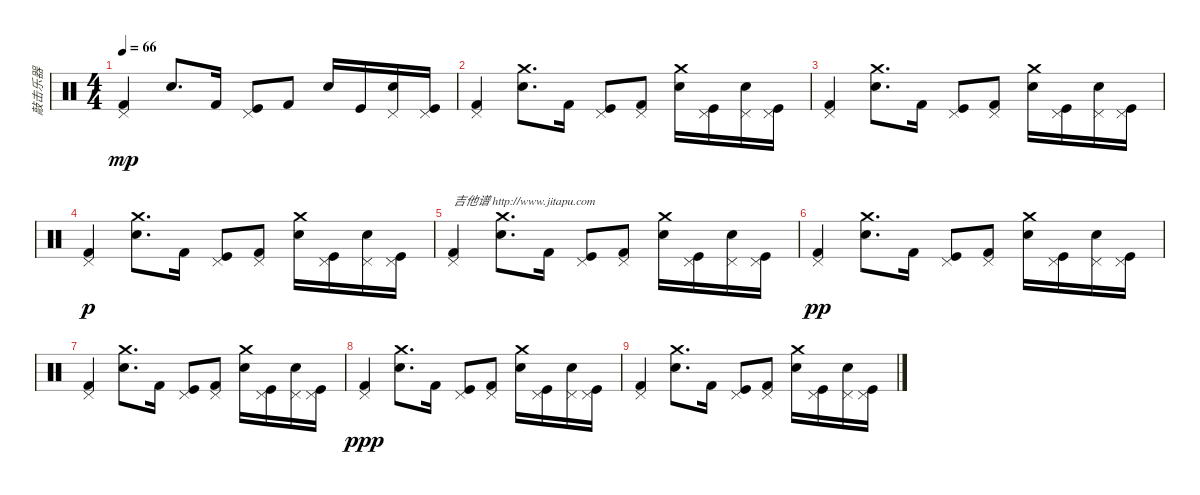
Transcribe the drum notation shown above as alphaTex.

\track ("敲击乐器" "敲击乐器") {instrument percussion}
\staff {score}
\articulation defaults
\ts (4 4)
\tempo 66
\clef neutral
\ks c
("Kick (hit) 2" "Pedal Hi-Hat (hit)").4{dy mp} "Snare (hit) 2".8{d} "Kick (hit) 2".16 ("Kick (hit)" "Pedal Hi-Hat (hit)").8 "Kick (hit) 2".8 "Snare (hit) 2".16 "Kick (hit)".16 ("Snare (hit) 2" "Pedal Hi-Hat (hit)").16 ("Kick (hit)" "Pedal Hi-Hat (hit)").16 |
("Kick (hit) 2" "Pedal Hi-Hat (hit)").4 ("Snare (hit) 2" "Crash medium (hit)").8{d} "Kick (hit) 2".16 ("Kick (hit)" "Pedal Hi-Hat (hit)").8 ("Kick (hit) 2" "Pedal Hi-Hat (hit)").8 ("Snare (hit) 2" "Crash medium (hit)").16 ("Kick (hit)" "Pedal Hi-Hat (hit)").16 ("Snare (hit) 2" "Pedal Hi-Hat (hit)").16 ("Kick (hit)" "Pedal Hi-Hat (hit)").16 |
("Kick (hit) 2" "Pedal Hi-Hat (hit)").4 ("Snare (hit) 2" "Crash medium (hit)").8{d} "Kick (hit) 2".16 ("Kick (hit)" "Pedal Hi-Hat (hit)").8 ("Kick (hit) 2" "Pedal Hi-Hat (hit)").8 ("Snare (hit) 2" "Crash medium (hit)").16 ("Kick (hit)" "Pedal Hi-Hat (hit)").16 ("Snare (hit) 2" "Pedal Hi-Hat (hit)").16 ("Kick (hit)" "Pedal Hi-Hat (hit)").16 |
("Kick (hit) 2" "Pedal Hi-Hat (hit)").4{dy p} ("Snare (hit) 2" "Crash medium (hit)").8{d} "Kick (hit) 2".16 ("Kick (hit)" "Pedal Hi-Hat (hit)").8 ("Kick (hit) 2" "Pedal Hi-Hat (hit)").8 ("Snare (hit) 2" "Crash medium (hit)").16 ("Kick (hit)" "Pedal Hi-Hat (hit)").16 ("Snare (hit) 2" "Pedal Hi-Hat (hit)").16 ("Kick (hit)" "Pedal Hi-Hat (hit)").16 |
("Kick (hit) 2" "Pedal Hi-Hat (hit)").4{txt "吉他谱 http://www.jitapu.com"} ("Snare (hit) 2" "Crash medium (hit)").8{d} "Kick (hit) 2".16 ("Kick (hit)" "Pedal Hi-Hat (hit)").8 ("Kick (hit) 2" "Pedal Hi-Hat (hit)").8 ("Snare (hit) 2" "Crash medium (hit)").16 ("Kick (hit)" "Pedal Hi-Hat (hit)").16 ("Snare (hit) 2" "Pedal Hi-Hat (hit)").16 ("Kick (hit)" "Pedal Hi-Hat (hit)").16 |
("Kick (hit) 2" "Pedal Hi-Hat (hit)").4{dy pp} ("Snare (hit) 2" "Crash medium (hit)").8{d} "Kick (hit) 2".16 ("Kick (hit)" "Pedal Hi-Hat (hit)").8 ("Kick (hit) 2" "Pedal Hi-Hat (hit)").8 ("Snare (hit) 2" "Crash medium (hit)").16 ("Kick (hit)" "Pedal Hi-Hat (hit)").16 ("Snare (hit) 2" "Pedal Hi-Hat (hit)").16 ("Kick (hit)" "Pedal Hi-Hat (hit)").16 |
("Kick (hit) 2" "Pedal Hi-Hat (hit)").4 ("Snare (hit) 2" "Crash medium (hit)").8{d} "Kick (hit) 2".16 ("Kick (hit)" "Pedal Hi-Hat (hit)").8 ("Kick (hit) 2" "Pedal Hi-Hat (hit)").8 ("Snare (hit) 2" "Crash medium (hit)").16 ("Kick (hit)" "Pedal Hi-Hat (hit)").16 ("Snare (hit) 2" "Pedal Hi-Hat (hit)").16 ("Kick (hit)" "Pedal Hi-Hat (hit)").16 |
("Kick (hit) 2" "Pedal Hi-Hat (hit)").4{dy ppp} ("Snare (hit) 2" "Crash medium (hit)").8{d} "Kick (hit) 2".16 ("Kick (hit)" "Pedal Hi-Hat (hit)").8 ("Kick (hit) 2" "Pedal Hi-Hat (hit)").8 ("Snare (hit) 2" "Crash medium (hit)").16 ("Kick (hit)" "Pedal Hi-Hat (hit)").16 ("Snare (hit) 2" "Pedal Hi-Hat (hit)").16 ("Kick (hit)" "Pedal Hi-Hat (hit)").16 |
("Kick (hit) 2" "Pedal Hi-Hat (hit)").4 ("Snare (hit) 2" "Crash medium (hit)").8{d} "Kick (hit) 2".16 ("Kick (hit)" "Pedal Hi-Hat (hit)").8 ("Kick (hit) 2" "Pedal Hi-Hat (hit)").8 ("Snare (hit) 2" "Crash medium (hit)").16 ("Kick (hit)" "Pedal Hi-Hat (hit)").16 ("Snare (hit) 2" "Pedal Hi-Hat (hit)").16 ("Kick (hit)" "Pedal Hi-Hat (hit)").16
